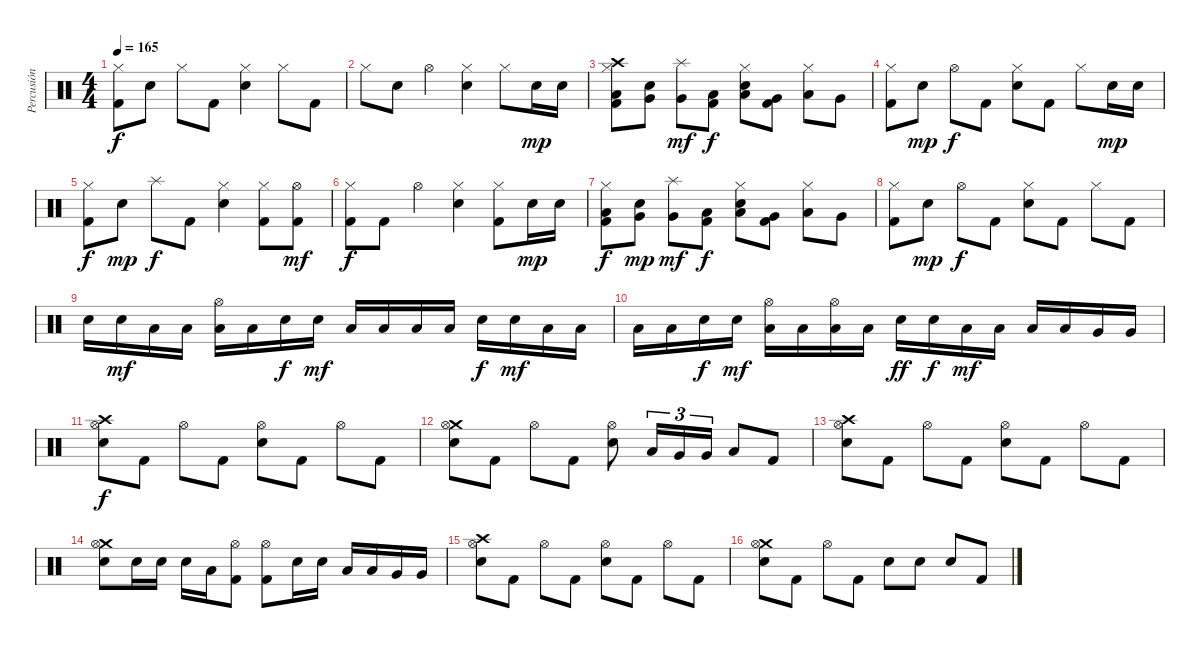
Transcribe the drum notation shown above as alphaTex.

\track ("Percusión" "Percusión") {instrument percussion}
\staff {score}
\articulation defaults
\ts (4 4)
\tempo 165
\clef neutral
\ks c
("Hi-Hat (closed)" "Kick (hit) 2").8{dy f} "Electric Snare (hit)".8 "Hi-Hat (closed)".8 "Kick (hit) 2".8 ("Hi-Hat (closed)" "Electric Snare (hit)").4 "Hi-Hat (closed)".8 "Kick (hit) 2".8 |
"Hi-Hat (closed)".8 "Electric Snare (hit)".8 "Hi-Hat (open)".4 ("Hi-Hat (closed)" "Electric Snare (hit)").4 "Hi-Hat (closed)".8 "Electric Snare (hit)".16{dy mp} "Electric Snare (hit)".16 |
("Crash high (hit)" "Hi-Hat (closed)" "Low Floor Tom (hit)" "Kick (hit) 2").8 ("Very Low Tom (hit)" "Electric Snare (hit)").8 ("Splash (hit)" "Very Low Tom (hit)").8{dy mf} ("Low Floor Tom (hit)" "Kick (hit) 2").8{dy f} ("Hi-Hat (closed)" "Low Floor Tom (hit)" "Electric Snare (hit)").8 ("Very Low Tom (hit)" "Kick (hit) 2").8 ("Hi-Hat (closed)" "Low Tom (hit)").8 "Very Low Tom (hit)".8 |
("Hi-Hat (closed)" "Kick (hit) 2").8 "Electric Snare (hit)".8{dy mp} "Hi-Hat (open)".8{dy f} "Kick (hit) 2".8 ("Hi-Hat (closed)" "Electric Snare (hit)").8 "Kick (hit) 2".8 "Hi-Hat (closed)".8 "Electric Snare (hit)".16{dy mp} "Electric Snare (hit)".16 |
("Hi-Hat (closed)" "Kick (hit) 2").8{dy f} "Electric Snare (hit)".8{dy mp} "Splash (hit)".8{dy f} "Kick (hit) 2".8 ("Hi-Hat (closed)" "Electric Snare (hit)").4 ("Hi-Hat (closed)" "Kick (hit) 2").8 ("Hi-Hat (open)" "Kick (hit) 2").8{dy mf} |
("Hi-Hat (closed)" "Kick (hit) 2").8{dy f} "Kick (hit) 2".8 "Hi-Hat (open)".4 ("Hi-Hat (closed)" "Electric Snare (hit)").4 ("Hi-Hat (closed)" "Kick (hit) 2").8 "Electric Snare (hit)".16{dy mp} "Electric Snare (hit)".16 |
("Hi-Hat (closed)" "Low Floor Tom (hit)" "Kick (hit) 2").8{dy f} ("Very Low Tom (hit)" "Electric Snare (hit)").8{dy mp} ("Splash (hit)" "Very Low Tom (hit)").8{dy mf} ("Low Floor Tom (hit)" "Kick (hit) 2").8{dy f} ("Hi-Hat (closed)" "Low Floor Tom (hit)" "Electric Snare (hit)").8 ("Very Low Tom (hit)" "Kick (hit) 2").8 ("Hi-Hat (closed)" "Low Tom (hit)").8 "Very Low Tom (hit)".8 |
("Hi-Hat (closed)" "Kick (hit) 2").8 "Electric Snare (hit)".8{dy mp} "Hi-Hat (open)".8{dy f} "Kick (hit) 2".8 ("Hi-Hat (closed)" "Electric Snare (hit)").8 "Kick (hit) 2".8 "Hi-Hat (closed)".8 "Kick (hit) 2".8 |
"Electric Snare (hit)".16 "Electric Snare (hit)".16{dy mf} "Low Tom (hit)".16 "Low Tom (hit)".16 ("Hi-Hat (open)" "Low Tom (hit)").16 "Low Tom (hit)".16 "Electric Snare (hit)".16{dy f} "Electric Snare (hit)".16{dy mf} "Low Tom (hit)".16 "Low Tom (hit)".16 "Low Tom (hit)".16 "Low Tom (hit)".16 "Electric Snare (hit)".16{dy f} "Electric Snare (hit)".16{dy mf} "Low Tom (hit)".16 "Low Tom (hit)".16 |
"Low Tom (hit)".16 "Low Tom (hit)".16 "Electric Snare (hit)".16{dy f} "Electric Snare (hit)".16{dy mf} ("Hi-Hat (open)" "Low Tom (hit)").16 "Low Tom (hit)".16 ("Hi-Hat (open)" "Low Tom (hit)").16 "Low Tom (hit)".16 "Electric Snare (hit)".16{dy ff} "Electric Snare (hit)".16{dy f} "Low Tom (hit)".16{dy mf} "Low Tom (hit)".16 "Low Tom (hit)".16 "Low Tom (hit)".16 "Very Low Tom (hit)".16 "Very Low Tom (hit)".16 |
("Crash high (hit)" "Hi-Hat (open)" "Snare (hit) 2").8{dy f} "Kick (hit) 2".8 "Hi-Hat (open)".8 "Kick (hit) 2".8 ("Hi-Hat (open)" "Snare (hit) 2").8 "Kick (hit) 2".8 "Hi-Hat (open)".8 "Kick (hit) 2".8 |
("Crash medium (hit)" "Hi-Hat (open)" "Snare (hit) 2").8 "Kick (hit) 2".8 "Hi-Hat (open)".8 "Kick (hit) 2".8 ("Hi-Hat (open)" "Snare (hit) 2").8 "Low Tom (hit)".16{tu (3 2)} "Very Low Tom (hit)".16{tu (3 2)} "Very Low Tom (hit)".16{tu (3 2)} "Low Tom (hit)".8 "Kick (hit) 2".8 |
("Crash high (hit)" "Hi-Hat (open)" "Snare (hit) 2").8 "Kick (hit) 2".8 "Hi-Hat (open)".8 "Kick (hit) 2".8 ("Hi-Hat (open)" "Snare (hit) 2").8 "Kick (hit) 2".8 "Hi-Hat (open)".8 "Kick (hit) 2".8 |
("Crash medium (hit)" "Hi-Hat (open)" "Snare (hit) 2").8 "Snare (hit) 2".16 "Snare (hit) 2".16 "Snare (hit) 2".16 "Low Tom (hit)".16 ("Hi-Hat (open)" "Kick (hit) 2").8 ("Hi-Hat (open)" "Kick (hit) 2").8 "Snare (hit) 2".16 "Snare (hit) 2".16 "Low Tom (hit)".16 "Low Tom (hit)".16 "Very Low Tom (hit)".16 "Very Low Tom (hit)".16 |
("Crash high (hit)" "Hi-Hat (open)" "Snare (hit) 2").8 "Kick (hit) 2".8 "Hi-Hat (open)".8 "Kick (hit) 2".8 ("Hi-Hat (open)" "Snare (hit) 2").8 "Kick (hit) 2".8 "Hi-Hat (open)".8 "Kick (hit) 2".8 |
("Crash medium (hit)" "Hi-Hat (open)" "Snare (hit) 2").8 "Kick (hit) 2".8 "Hi-Hat (open)".8 "Kick (hit) 2".8 "Snare (hit) 2".8 "Snare (hit) 2".8 "Snare (hit) 2".8 "Kick (hit) 2".8
